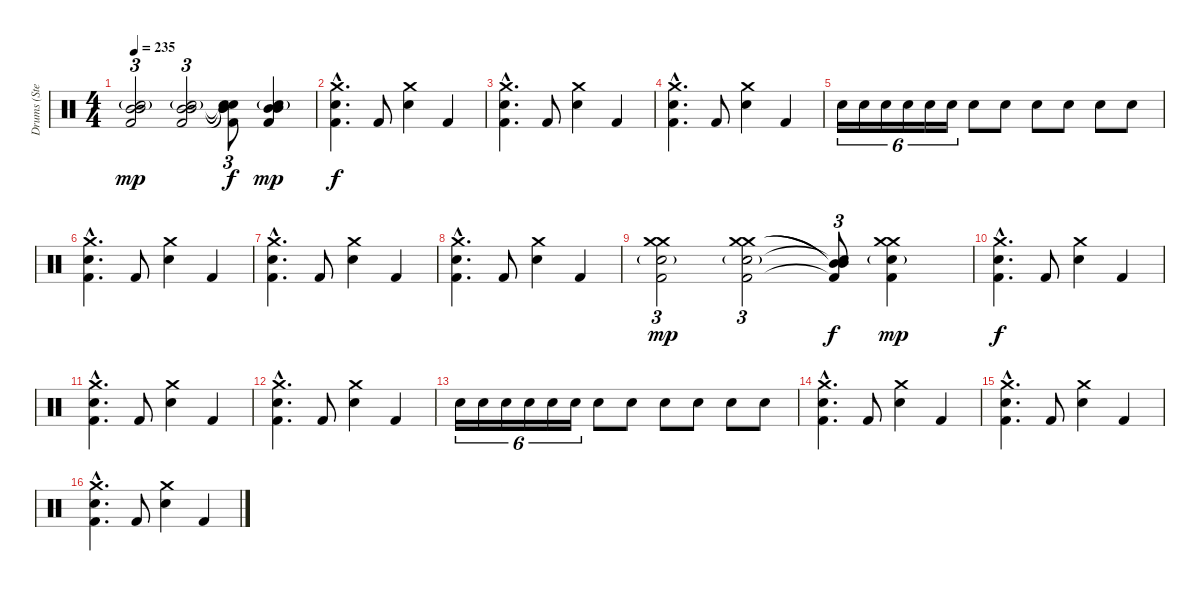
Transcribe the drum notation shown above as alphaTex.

\track ("Drums (Steve Jocz)" "Drums (Ste") {instrument percussion}
\staff {score}
\articulation defaults
\ts (4 4)
\tempo 235
\clef neutral
\ks c
("Mid Tom (hit)" "Mid Tom (hit)" "Electric Snare (hit)"{g} "Kick (hit) 2").2{tu (3 2) dy mp} ("Mid Tom (hit)" "Mid Tom (hit)" "Electric Snare (hit)"{g} "Kick (hit) 2").2{tu (3 2)} ("Mid Tom (hit)"{t} "Mid Tom (hit)"{t} "Electric Snare (hit)"{t} "Snare (hit)"{t} "Kick (hit) 2").8{tu (3 2) dy f} ("Mid Tom (hit)" "Mid Tom (hit)" "Electric Snare (hit)"{g} "Kick (hit) 2").4{dy mp} |
("Crash medium (hit)"{hac} "Electric Snare (hit)"{hac} "Kick (hit) 2"{hac}).4{d dy f} "Kick (hit) 2".8 ("Crash medium (hit)" "Electric Snare (hit)").4 "Kick (hit) 2".4 |
("Crash medium (hit)"{hac} "Electric Snare (hit)"{hac} "Kick (hit) 2"{hac}).4{d} "Kick (hit) 2".8 ("Crash medium (hit)" "Electric Snare (hit)").4 "Kick (hit) 2".4 |
("Crash medium (hit)"{hac} "Electric Snare (hit)"{hac} "Kick (hit) 2"{hac}).4{d} "Kick (hit) 2".8 ("Crash medium (hit)" "Electric Snare (hit)").4 "Kick (hit) 2".4 |
"Electric Snare (hit)".16{tu (6 4)} "Electric Snare (hit)".16{tu (6 4)} "Electric Snare (hit)".16{tu (6 4)} "Electric Snare (hit)".16{tu (6 4)} "Electric Snare (hit)".16{tu (6 4)} "Electric Snare (hit)".16{tu (6 4)} "Electric Snare (hit)".8 "Electric Snare (hit)".8 "Electric Snare (hit)".8 "Electric Snare (hit)".8 "Electric Snare (hit)".8 "Electric Snare (hit)".8 |
("Crash medium (hit)"{hac} "Electric Snare (hit)"{hac} "Kick (hit) 2"{hac}).4{d} "Kick (hit) 2".8 ("Crash medium (hit)" "Electric Snare (hit)").4 "Kick (hit) 2".4 |
("Crash medium (hit)"{hac} "Electric Snare (hit)"{hac} "Kick (hit) 2"{hac}).4{d} "Kick (hit) 2".8 ("Crash medium (hit)" "Electric Snare (hit)").4 "Kick (hit) 2".4 |
("Crash medium (hit)"{hac} "Electric Snare (hit)"{hac} "Kick (hit) 2"{hac}).4{d} "Kick (hit) 2".8 ("Crash medium (hit)" "Electric Snare (hit)").4 "Kick (hit) 2".4 |
("Crash medium (hit)" "Crash medium (hit)" "Electric Snare (hit)"{g} "Kick (hit) 2").2{tu (3 2) dy mp} ("Crash medium (hit)" "Crash medium (hit)" "Electric Snare (hit)"{g} "Kick (hit) 2").2{tu (3 2)} ("Mid Tom (hit)"{t} "Mid Tom (hit)"{t} "Electric Snare (hit)"{t} "Kick (hit) 2"{t}).8{tu (3 2) dy f} ("Crash medium (hit)" "Crash medium (hit)" "Electric Snare (hit)"{g} "Kick (hit) 2").4{dy mp} |
("Crash medium (hit)"{hac} "Electric Snare (hit)"{hac} "Kick (hit) 2"{hac}).4{d dy f} "Kick (hit) 2".8 ("Crash medium (hit)" "Electric Snare (hit)").4 "Kick (hit) 2".4 |
("Crash medium (hit)"{hac} "Electric Snare (hit)"{hac} "Kick (hit) 2"{hac}).4{d} "Kick (hit) 2".8 ("Crash medium (hit)" "Electric Snare (hit)").4 "Kick (hit) 2".4 |
("Crash medium (hit)"{hac} "Electric Snare (hit)"{hac} "Kick (hit) 2"{hac}).4{d} "Kick (hit) 2".8 ("Crash medium (hit)" "Electric Snare (hit)").4 "Kick (hit) 2".4 |
"Electric Snare (hit)".16{tu (6 4)} "Electric Snare (hit)".16{tu (6 4)} "Electric Snare (hit)".16{tu (6 4)} "Electric Snare (hit)".16{tu (6 4)} "Electric Snare (hit)".16{tu (6 4)} "Electric Snare (hit)".16{tu (6 4)} "Electric Snare (hit)".8 "Electric Snare (hit)".8 "Electric Snare (hit)".8 "Electric Snare (hit)".8 "Electric Snare (hit)".8 "Electric Snare (hit)".8 |
("Crash medium (hit)"{hac} "Electric Snare (hit)"{hac} "Kick (hit) 2"{hac}).4{d} "Kick (hit) 2".8 ("Crash medium (hit)" "Electric Snare (hit)").4 "Kick (hit) 2".4 |
("Crash medium (hit)"{hac} "Electric Snare (hit)"{hac} "Kick (hit) 2"{hac}).4{d} "Kick (hit) 2".8 ("Crash medium (hit)" "Electric Snare (hit)").4 "Kick (hit) 2".4 |
("Crash medium (hit)"{hac} "Electric Snare (hit)"{hac} "Kick (hit) 2"{hac}).4{d} "Kick (hit) 2".8 ("Crash medium (hit)" "Electric Snare (hit)").4 "Kick (hit) 2".4
